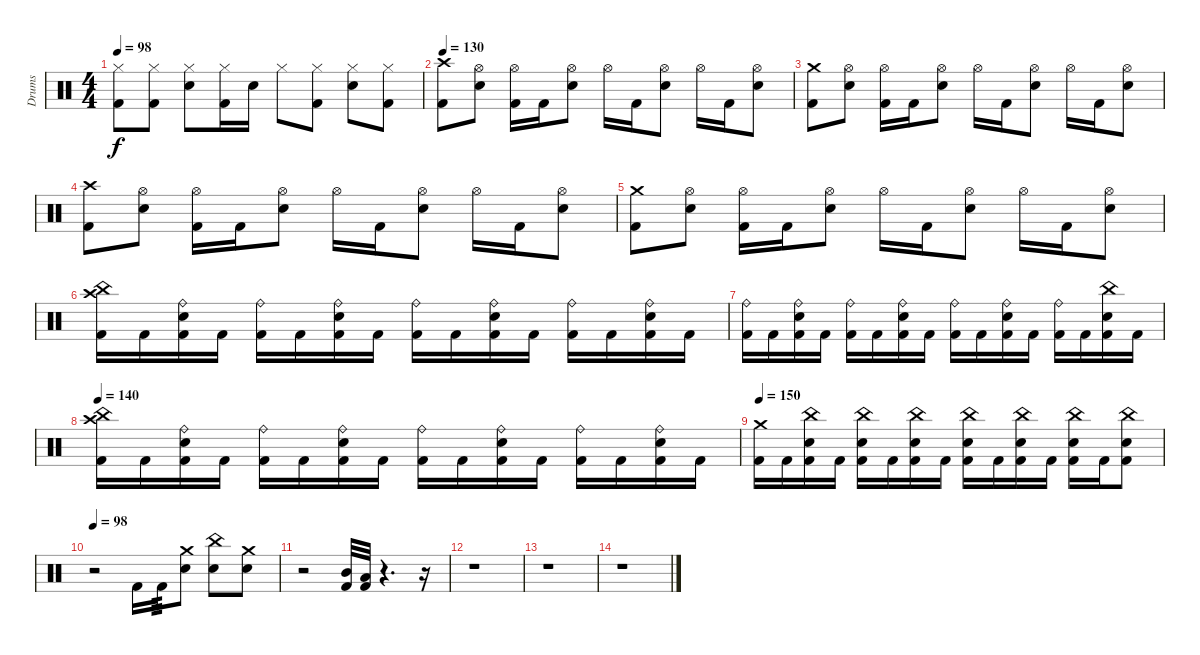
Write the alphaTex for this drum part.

\track ("Drums" "Drums") {instrument percussion}
\staff {score}
\articulation defaults
\ts (4 4)
\tempo 98
\clef neutral
\ks c
("Hi-Hat (closed)" "Kick (hit) 2").8{dy f} ("Hi-Hat (closed)" "Kick (hit) 2").8 ("Hi-Hat (closed)" "Snare (hit) 2").8 ("Hi-Hat (closed)" "Kick (hit) 2").16 "Snare (hit) 2".16 "Hi-Hat (closed)".8 ("Hi-Hat (closed)" "Kick (hit) 2").8 ("Hi-Hat (closed)" "Snare (hit) 2").8 ("Hi-Hat (closed)" "Kick (hit) 2").8 |
\tempo 130
("Crash high (hit)" "Kick (hit) 2").8 ("Hi-Hat (open)" "Snare (hit) 2").8 ("Hi-Hat (open)" "Kick (hit) 2").16 "Kick (hit) 2".16 ("Hi-Hat (open)" "Snare (hit) 2").8 "Hi-Hat (open)".16 "Kick (hit) 2".16 ("Hi-Hat (open)" "Snare (hit) 2").8 "Hi-Hat (open)".16 "Kick (hit) 2".16 ("Hi-Hat (open)" "Snare (hit) 2").8 |
("Crash medium (hit)" "Kick (hit) 2").8 ("Hi-Hat (open)" "Snare (hit) 2").8 ("Hi-Hat (open)" "Kick (hit) 2").16 "Kick (hit) 2".16 ("Hi-Hat (open)" "Snare (hit) 2").8 "Hi-Hat (open)".16 "Kick (hit) 2".16 ("Hi-Hat (open)" "Snare (hit) 2").8 "Hi-Hat (open)".16 "Kick (hit) 2".16 ("Hi-Hat (open)" "Snare (hit) 2").8 |
("Crash high (hit)" "Kick (hit) 2").8 ("Hi-Hat (open)" "Snare (hit) 2").8 ("Hi-Hat (open)" "Kick (hit) 2").16 "Kick (hit) 2".16 ("Hi-Hat (open)" "Snare (hit) 2").8 "Hi-Hat (open)".16 "Kick (hit) 2".16 ("Hi-Hat (open)" "Snare (hit) 2").8 "Hi-Hat (open)".16 "Kick (hit) 2".16 ("Hi-Hat (open)" "Snare (hit) 2").8 |
("Crash medium (hit)" "Kick (hit) 2").8 ("Hi-Hat (open)" "Snare (hit) 2").8 ("Hi-Hat (open)" "Kick (hit) 2").16 "Kick (hit) 2".16 ("Hi-Hat (open)" "Snare (hit) 2").8 "Hi-Hat (open)".16 "Kick (hit) 2".16 ("Hi-Hat (open)" "Snare (hit) 2").8 "Hi-Hat (open)".16 "Kick (hit) 2".16 ("Hi-Hat (open)" "Snare (hit) 2").8 |
("Crash high (hit)" "China (hit)" "Kick (hit) 2").16 "Kick (hit) 2".16 ("Ride (bell)" "Snare (hit) 2" "Kick (hit) 2").16 "Kick (hit) 2".16 ("Ride (bell)" "Kick (hit) 2").16 "Kick (hit) 2".16 ("Ride (bell)" "Snare (hit) 2" "Kick (hit) 2").16 "Kick (hit) 2".16 ("Ride (bell)" "Kick (hit) 2").16 "Kick (hit) 2".16 ("Ride (bell)" "Snare (hit) 2" "Kick (hit) 2").16 "Kick (hit) 2".16 ("Ride (bell)" "Kick (hit) 2").16 "Kick (hit) 2".16 ("Ride (bell)" "Snare (hit) 2" "Kick (hit) 2").16 "Kick (hit) 2".16 |
("Ride (bell)" "Kick (hit) 2").16 "Kick (hit) 2".16 ("Ride (bell)" "Snare (hit) 2" "Kick (hit) 2").16 "Kick (hit) 2".16 ("Ride (bell)" "Kick (hit) 2").16 "Kick (hit) 2".16 ("Ride (bell)" "Snare (hit) 2" "Kick (hit) 2").16 "Kick (hit) 2".16 ("Ride (bell)" "Kick (hit) 2").16 "Kick (hit) 2".16 ("Ride (bell)" "Snare (hit) 2" "Kick (hit) 2").16 "Kick (hit) 2".16 ("Ride (bell)" "Kick (hit) 2").16 "Kick (hit) 2".16 ("China (hit)" "Snare (hit) 2" "Kick (hit) 2").16 "Kick (hit) 2".16 |
\tempo 140
("Crash high (hit)" "China (hit)" "Kick (hit) 2").16 "Kick (hit) 2".16 ("Ride (bell)" "Snare (hit) 2" "Kick (hit) 2").16 "Kick (hit) 2".16 ("Ride (bell)" "Kick (hit) 2").16 "Kick (hit) 2".16 ("Ride (bell)" "Snare (hit) 2" "Kick (hit) 2").16 "Kick (hit) 2".16 ("Ride (bell)" "Kick (hit) 2").16 "Kick (hit) 2".16 ("Ride (bell)" "Snare (hit) 2" "Kick (hit) 2").16 "Kick (hit) 2".16 ("Ride (bell)" "Kick (hit) 2").16 "Kick (hit) 2".16 ("Ride (bell)" "Snare (hit) 2" "Kick (hit) 2").16 "Kick (hit) 2".16 |
\tempo 150
("Crash medium (hit)" "Kick (hit) 2").16 "Kick (hit) 2".16 ("China (hit)" "Snare (hit) 2" "Kick (hit) 2").16 "Kick (hit) 2".16 ("China (hit)" "Snare (hit) 2" "Kick (hit) 2").16 "Kick (hit) 2".16 ("China (hit)" "Snare (hit) 2" "Kick (hit) 2").16 "Kick (hit) 2".16 ("China (hit)" "Snare (hit) 2" "Kick (hit) 2").16 "Kick (hit) 2".16 ("China (hit)" "Snare (hit) 2" "Kick (hit) 2").16 "Kick (hit) 2".16 ("China (hit)" "Snare (hit) 2" "Kick (hit) 2").16 "Kick (hit) 2".16 ("China (hit)" "Snare (hit) 2" "Kick (hit) 2").8 |
\tempo 98
r.2 "Kick (hit) 2".16 "Kick (hit) 2".16{tp 3} ("Crash medium (hit)" "Snare (hit) 2").8 ("China (hit)" "Snare (hit) 2").8 ("Crash medium (hit)" "Snare (hit) 2").8 |
r.2 ("Mid Tom (hit)" "Kick (hit) 2").32 ("Low Tom (hit)" "Kick (hit) 2").32 r.4{d} r.16 |
r.1 |
r.1 |
r.1
